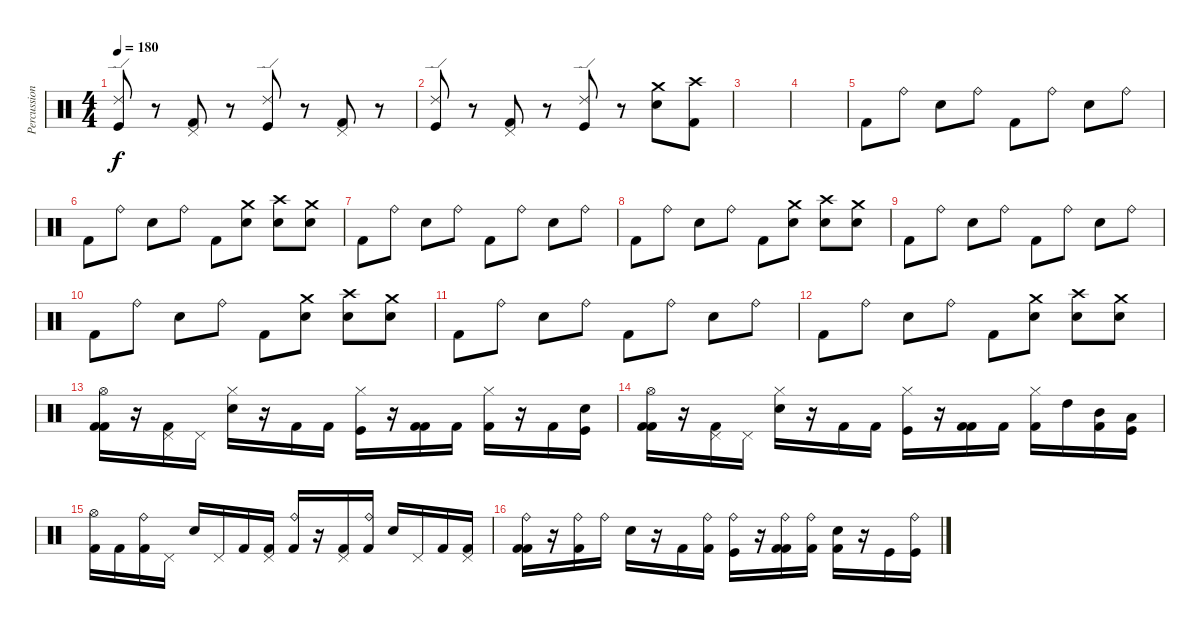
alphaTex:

\track ("Percussion" "Percussion") {instrument percussion}
\staff {score}
\articulation defaults
\ts (4 4)
\tempo 180
\clef neutral
\ks c
("Kick (hit)" "Ride (edge) 2").8{dy f} r.8 ("Kick (hit) 2" "Pedal Hi-Hat (hit)").8 r.8 ("Kick (hit)" "Ride (edge) 2").8 r.8 ("Kick (hit) 2" "Pedal Hi-Hat (hit)").8 r.8 |
("Kick (hit)" "Ride (edge) 2").8 r.8 ("Kick (hit) 2" "Pedal Hi-Hat (hit)").8 r.8 ("Kick (hit)" "Ride (edge) 2").8 r.8 ("Crash medium (hit)" "Snare (hit) 2").8 ("Crash high (hit)" "Kick (hit) 2").8 |
|
|
"Kick (hit) 2".8 "Ride (bell)".8 "Snare (hit) 2".8 "Ride (bell)".8 "Kick (hit) 2".8 "Ride (bell)".8 "Snare (hit) 2".8 "Ride (bell)".8 |
"Kick (hit) 2".8 "Ride (bell)".8 "Snare (hit) 2".8 "Ride (bell)".8 "Kick (hit) 2".8 ("Crash medium (hit)" "Snare (hit) 2").8 ("Crash high (hit)" "Snare (hit) 2").8 ("Crash medium (hit)" "Snare (hit) 2").8 |
"Kick (hit) 2".8 "Ride (bell)".8 "Snare (hit) 2".8 "Ride (bell)".8 "Kick (hit) 2".8 "Ride (bell)".8 "Snare (hit) 2".8 "Ride (bell)".8 |
"Kick (hit) 2".8 "Ride (bell)".8 "Snare (hit) 2".8 "Ride (bell)".8 "Kick (hit) 2".8 ("Crash medium (hit)" "Snare (hit) 2").8 ("Crash high (hit)" "Snare (hit) 2").8 ("Crash medium (hit)" "Snare (hit) 2").8 |
"Kick (hit) 2".8 "Ride (bell)".8 "Snare (hit) 2".8 "Ride (bell)".8 "Kick (hit) 2".8 "Ride (bell)".8 "Snare (hit) 2".8 "Ride (bell)".8 |
"Kick (hit) 2".8 "Ride (bell)".8 "Snare (hit) 2".8 "Ride (bell)".8 "Kick (hit) 2".8 ("Crash medium (hit)" "Snare (hit) 2").8 ("Crash high (hit)" "Snare (hit) 2").8 ("Crash medium (hit)" "Snare (hit) 2").8 |
"Kick (hit) 2".8 "Ride (bell)".8 "Snare (hit) 2".8 "Ride (bell)".8 "Kick (hit) 2".8 "Ride (bell)".8 "Snare (hit) 2".8 "Ride (bell)".8 |
"Kick (hit) 2".8 "Ride (bell)".8 "Snare (hit) 2".8 "Ride (bell)".8 "Kick (hit) 2".8 ("Crash medium (hit)" "Snare (hit) 2").8 ("Crash high (hit)" "Snare (hit) 2").8 ("Crash medium (hit)" "Snare (hit) 2").8 |
("Hi-Hat (open)" "Kick (hit) 2" "Kick (hit) 2").16 r.16 ("Pedal Hi-Hat (hit)" "Kick (hit) 2").16 "Pedal Hi-Hat (hit)".16 ("Hi-Hat (closed)" "Snare (hit) 2").16 r.16 "Kick (hit) 2".16 "Kick (hit) 2".16 ("Hi-Hat (closed)" "Kick (hit)").16 r.16 ("Kick (hit) 2" "Kick (hit) 2").16 "Kick (hit) 2".16 ("Hi-Hat (closed)" "Kick (hit) 2").16 r.16 "Kick (hit) 2".16 ("Metronome (bell)" "Kick (hit)").16 |
("Hi-Hat (open)" "Kick (hit) 2" "Kick (hit) 2").16 r.16 ("Pedal Hi-Hat (hit)" "Kick (hit) 2").16 "Pedal Hi-Hat (hit)".16 ("Hi-Hat (closed)" "Snare (hit) 2").16 r.16 "Kick (hit) 2".16 "Kick (hit) 2".16 ("Hi-Hat (closed)" "Kick (hit)").16 r.16 ("Kick (hit) 2" "Kick (hit) 2").16 "Kick (hit) 2".16 ("Hi-Hat (closed)" "Kick (hit) 2").16 "High Tom (hit)".16 ("Mid Tom (hit)" "Kick (hit) 2").16 ("Low Tom (hit)" "Kick (hit)").16 |
("Hi-Hat (open)" "Kick (hit) 2").16 "Kick (hit) 2".16 ("Ride (bell)" "Kick (hit) 2").16 "Pedal Hi-Hat (hit)".16 "Snare (hit) 2".16 "Pedal Hi-Hat (hit)".16 "Kick (hit) 2".16 ("Pedal Hi-Hat (hit)" "Kick (hit) 2").16 ("Ride (bell)" "Kick (hit) 2").16 r.16 ("Pedal Hi-Hat (hit)" "Kick (hit) 2").16 ("Ride (bell)" "Kick (hit) 2").16 "Snare (hit) 2".16 "Pedal Hi-Hat (hit)".16 "Kick (hit) 2".16 ("Pedal Hi-Hat (hit)" "Kick (hit) 2").16 |
("Ride (bell)" "Kick (hit) 2" "Kick (hit) 2").16 r.16 ("Ride (bell)" "Kick (hit) 2").16 "Ride (bell)".16 "Snare (hit) 2".16 r.16 "Kick (hit) 2".16 ("Ride (bell)" "Kick (hit) 2").16 ("Ride (bell)" "Kick (hit)").16 r.16 ("Ride (bell)" "Kick (hit) 2" "Kick (hit) 2").16 ("Ride (bell)" "Kick (hit) 2").16 ("Snare (hit) 2" "Kick (hit) 2").16 r.16 "Kick (hit)".16 ("Ride (bell)" "Kick (hit)").16
